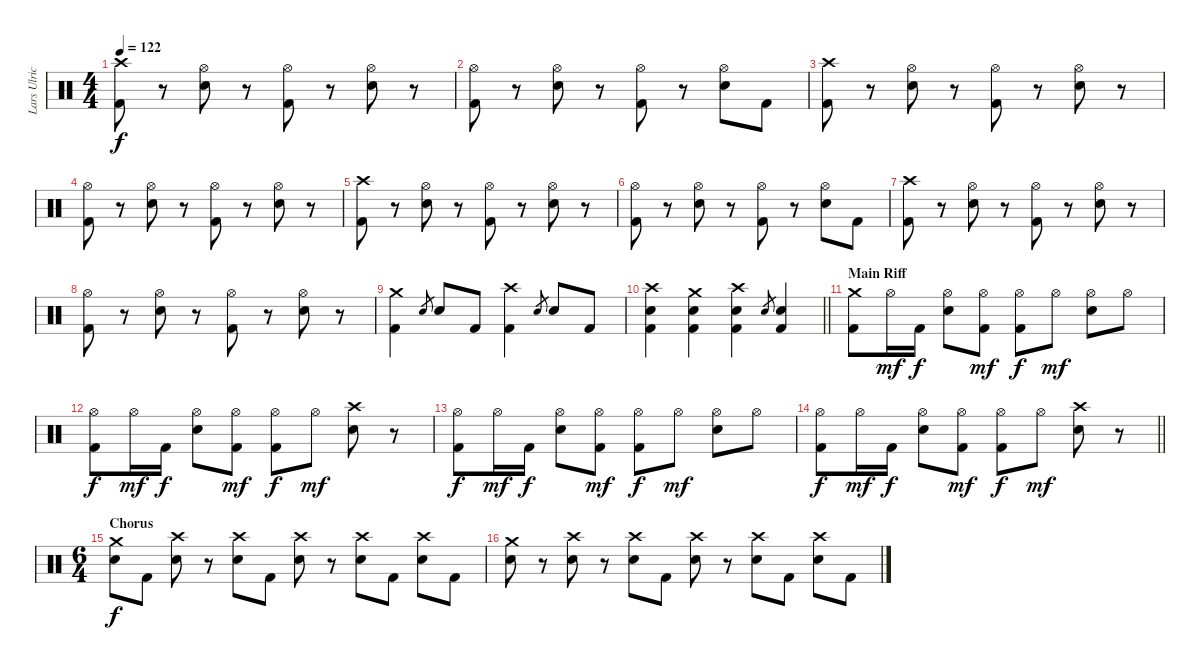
\track ("Lars Ulrich" "Lars Ulric") {instrument percussion}
\staff {score}
\articulation defaults
\ts (4 4)
\tempo 122
\clef neutral
\ks c
("Crash high (hit)" "Kick (hit) 2").8{dy f} r.8 ("Hi-Hat (open)" "Snare (hit) 2").8 r.8 ("Hi-Hat (open)" "Kick (hit) 2").8 r.8 ("Hi-Hat (open)" "Snare (hit) 2").8 r.8 |
("Hi-Hat (open)" "Kick (hit) 2").8 r.8 ("Hi-Hat (open)" "Snare (hit) 2").8 r.8 ("Hi-Hat (open)" "Kick (hit) 2").8 r.8 ("Hi-Hat (open)" "Snare (hit) 2").8 "Kick (hit) 2".8 |
("Crash high (hit)" "Kick (hit) 2").8 r.8 ("Hi-Hat (open)" "Snare (hit) 2").8 r.8 ("Hi-Hat (open)" "Kick (hit) 2").8 r.8 ("Hi-Hat (open)" "Snare (hit) 2").8 r.8 |
("Hi-Hat (open)" "Kick (hit) 2").8 r.8 ("Hi-Hat (open)" "Snare (hit) 2").8 r.8 ("Hi-Hat (open)" "Kick (hit) 2").8 r.8 ("Hi-Hat (open)" "Snare (hit) 2").8 r.8 |
("Crash high (hit)" "Kick (hit) 2").8 r.8 ("Hi-Hat (open)" "Snare (hit) 2").8 r.8 ("Hi-Hat (open)" "Kick (hit) 2").8 r.8 ("Hi-Hat (open)" "Snare (hit) 2").8 r.8 |
("Hi-Hat (open)" "Kick (hit) 2").8 r.8 ("Hi-Hat (open)" "Snare (hit) 2").8 r.8 ("Hi-Hat (open)" "Kick (hit) 2").8 r.8 ("Hi-Hat (open)" "Snare (hit) 2").8 "Kick (hit) 2".8 |
("Crash high (hit)" "Kick (hit) 2").8 r.8 ("Hi-Hat (open)" "Snare (hit) 2").8 r.8 ("Hi-Hat (open)" "Kick (hit) 2").8 r.8 ("Hi-Hat (open)" "Snare (hit) 2").8 r.8 |
("Hi-Hat (open)" "Kick (hit) 2").8 r.8 ("Hi-Hat (open)" "Snare (hit) 2").8 r.8 ("Hi-Hat (open)" "Kick (hit) 2").8 r.8 ("Hi-Hat (open)" "Snare (hit) 2").8 r.8 |
("Crash medium (hit)" "Kick (hit) 2").4 "Snare (hit) 2".8{gr} "Snare (hit) 2".8 "Kick (hit) 2".8 ("Crash high (hit)" "Kick (hit) 2").4 "Snare (hit) 2".8{gr} "Snare (hit) 2".8 "Kick (hit) 2".8 |
\barLineRight lightlight
("Crash high (hit)" "Snare (hit) 2" "Kick (hit) 2").4 ("Crash medium (hit)" "Snare (hit) 2" "Kick (hit) 2").4 ("Crash high (hit)" "Snare (hit) 2" "Kick (hit) 2").4 "Snare (hit) 2".8{gr} ("Snare (hit) 2" "Kick (hit) 2").4 |
\section ("" "Main Riff")
("Crash medium (hit)" "Kick (hit) 2").8 "Hi-Hat (open)".16{dy mf} "Kick (hit) 2".16{dy f} ("Hi-Hat (open)" "Snare (hit) 2").8 ("Hi-Hat (open)" "Kick (hit) 2").8{dy mf} ("Hi-Hat (open)" "Kick (hit) 2").8{dy f} "Hi-Hat (open)".8{dy mf} ("Hi-Hat (open)" "Snare (hit) 2").8 "Hi-Hat (open)".8 |
("Hi-Hat (open)" "Kick (hit) 2").8{dy f} "Hi-Hat (open)".16{dy mf} "Kick (hit) 2".16{dy f} ("Hi-Hat (open)" "Snare (hit) 2").8 ("Hi-Hat (open)" "Kick (hit) 2").8{dy mf} ("Hi-Hat (open)" "Kick (hit) 2").8{dy f} "Hi-Hat (open)".8{dy mf} ("Crash high (hit)" "Snare (hit) 2").8 r.8 |
("Hi-Hat (open)" "Kick (hit) 2").8{dy f} "Hi-Hat (open)".16{dy mf} "Kick (hit) 2".16{dy f} ("Hi-Hat (open)" "Snare (hit) 2").8 ("Hi-Hat (open)" "Kick (hit) 2").8{dy mf} ("Hi-Hat (open)" "Kick (hit) 2").8{dy f} "Hi-Hat (open)".8{dy mf} ("Hi-Hat (open)" "Snare (hit) 2").8 "Hi-Hat (open)".8 |
\barLineRight lightlight
("Hi-Hat (open)" "Kick (hit) 2").8{dy f} "Hi-Hat (open)".16{dy mf} "Kick (hit) 2".16{dy f} ("Hi-Hat (open)" "Snare (hit) 2").8 ("Hi-Hat (open)" "Kick (hit) 2").8{dy mf} ("Hi-Hat (open)" "Kick (hit) 2").8{dy f} "Hi-Hat (open)".8{dy mf} ("Crash high (hit)" "Snare (hit) 2").8 r.8 |
\ts (6 4)
\section ("" "Chorus")
("Crash medium (hit)" "Snare (hit) 2").8{dy f} "Kick (hit) 2".8 ("Crash high (hit)" "Snare (hit) 2").8 r.8 ("Crash high (hit)" "Snare (hit) 2").8 "Kick (hit) 2".8 ("Crash high (hit)" "Snare (hit) 2").8 r.8 ("Crash high (hit)" "Snare (hit) 2").8 "Kick (hit) 2".8 ("Crash high (hit)" "Snare (hit) 2").8 "Kick (hit) 2".8 |
("Crash medium (hit)" "Snare (hit) 2").8 r.8 ("Crash high (hit)" "Snare (hit) 2").8 r.8 ("Crash high (hit)" "Snare (hit) 2").8 "Kick (hit) 2".8 ("Crash high (hit)" "Snare (hit) 2").8 r.8 ("Crash high (hit)" "Snare (hit) 2").8 "Kick (hit) 2".8 ("Crash high (hit)" "Snare (hit) 2").8 "Kick (hit) 2".8
